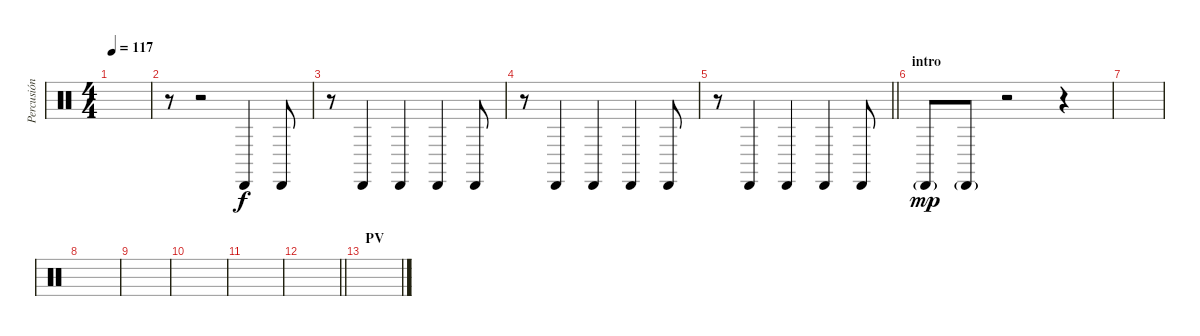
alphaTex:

\track ("Percusión" "Percusión") {instrument percussion}
\staff {score}
\articulation defaults
\ts (4 4)
\tempo 117
\clef neutral
\ks c
|
r.8 r.2 "Cabasa (hit)".4 "Cabasa (hit)".8 |
r.8 "Cabasa (hit)".4 "Cabasa (hit)".4 "Cabasa (hit)".4 "Cabasa (hit)".8 |
r.8 "Cabasa (hit)".4 "Cabasa (hit)".4 "Cabasa (hit)".4 "Cabasa (hit)".8 |
\barLineRight lightlight
r.8 "Cabasa (hit)".4 "Cabasa (hit)".4 "Cabasa (hit)".4 "Cabasa (hit)".8 |
\section ("" "intro")
"Cabasa (hit)"{g}.8{dy mp} "Cabasa (hit)"{g}.8 r.2 r.4 |
|
|
|
|
|
\barLineRight lightlight
|
\section ("" "PV")
